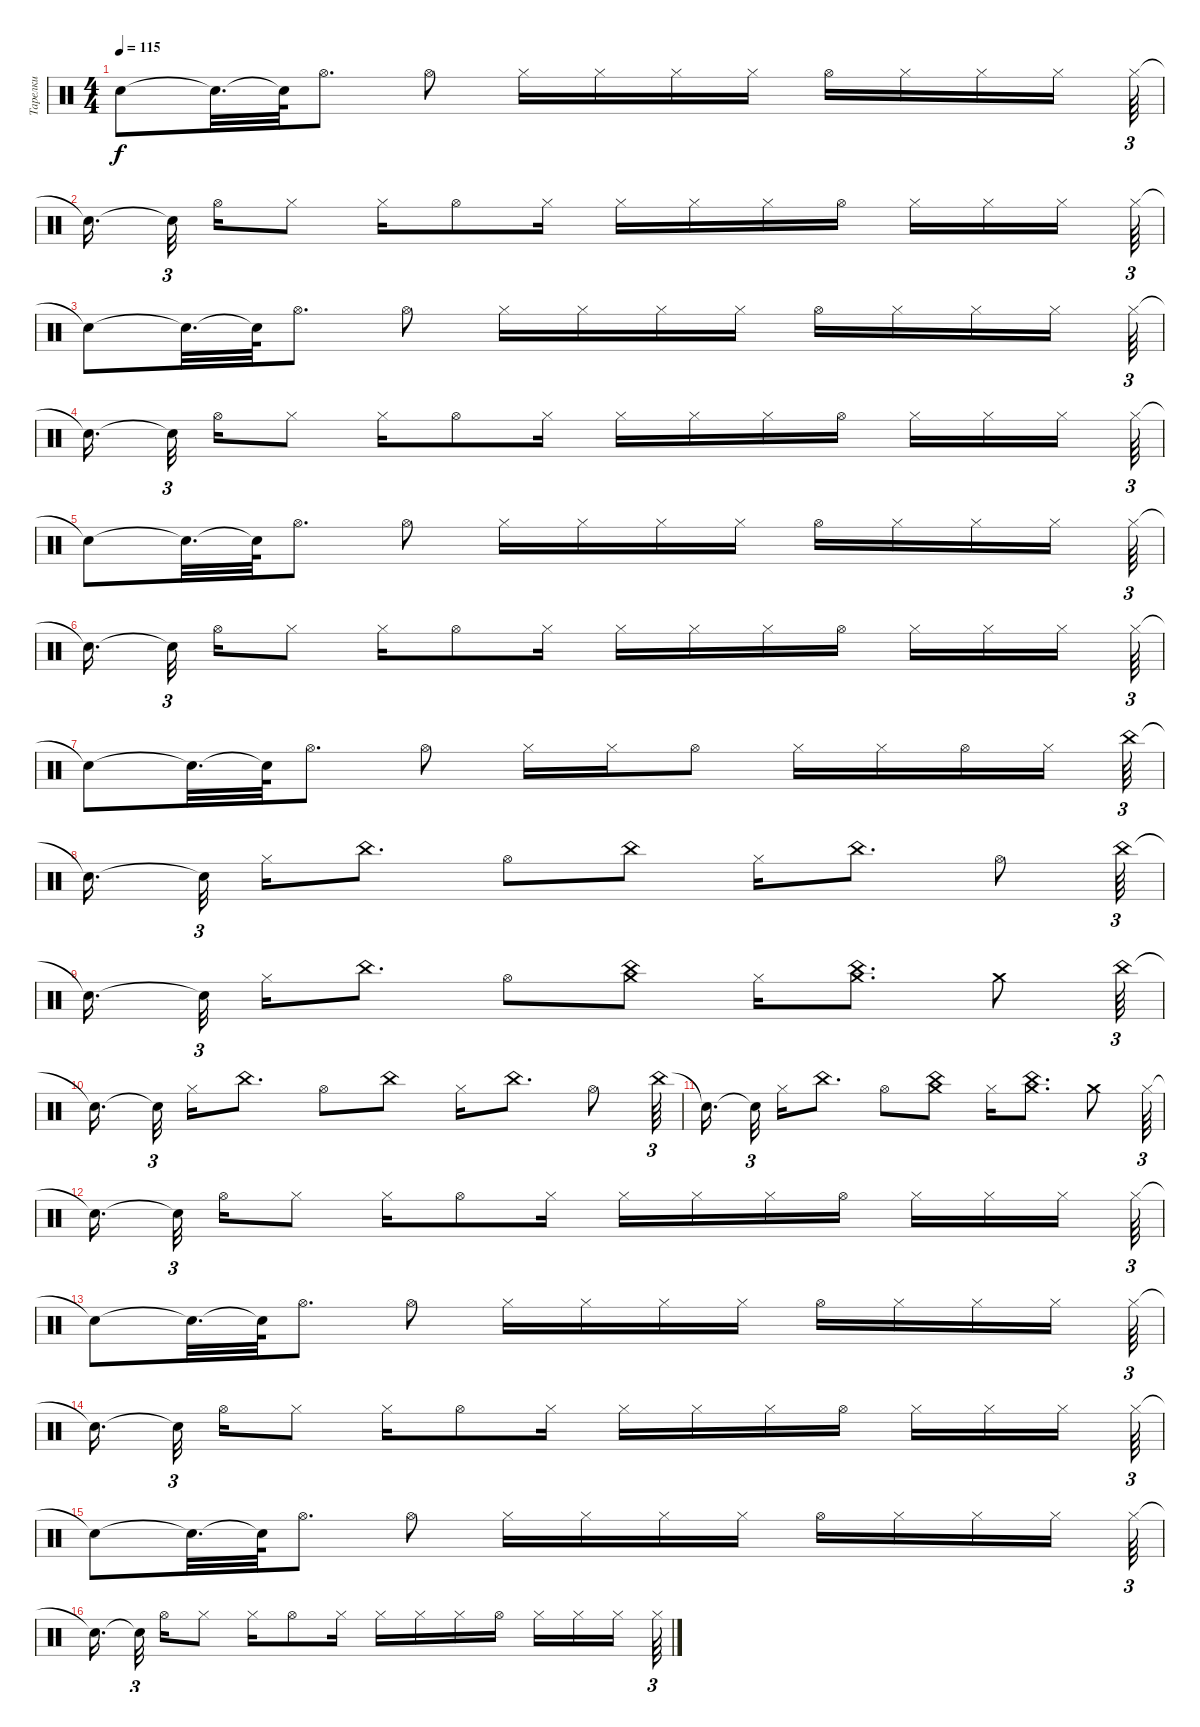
\track ("Тарелки" "Тарелки") {instrument percussion}
\staff {score}
\articulation defaults
\ts (4 4)
\tempo 115
\clef neutral
\ks c "Snare (hit)"{t}.8{dy f} "Snare (hit)"{t}.32{d} "Snare (hit)"{t}.64 "Hi-Hat (open)".8{d} "Hi-Hat (open)".8 "Hi-Hat (closed)".16 "Hi-Hat (closed)".16 "Hi-Hat (closed)".16 "Hi-Hat (closed)".16 "Hi-Hat (open)".16 "Hi-Hat (closed)".16 "Hi-Hat (closed)".16 "Hi-Hat (closed)".16 "Hi-Hat (closed)".64{tu (3 2)}
|
"Snare (hit)"{t}.16{d beam splitsecondary} "Snare (hit)"{t}.32{tu (3 2) beam splitsecondary} "Hi-Hat (open)".16 "Hi-Hat (closed)".8 "Hi-Hat (closed)".16 "Hi-Hat (open)".8 "Hi-Hat (closed)".16 "Hi-Hat (closed)".16 "Hi-Hat (closed)".16 "Hi-Hat (closed)".16 "Hi-Hat (open)".16 "Hi-Hat (closed)".16 "Hi-Hat (closed)".16 "Hi-Hat (closed)".16{beam splitsecondary} "Hi-Hat (closed)".64{tu (3 2)} |
"Snare (hit)"{t}.8 "Snare (hit)"{t}.32{d} "Snare (hit)"{t}.64 "Hi-Hat (open)".8{d} "Hi-Hat (open)".8 "Hi-Hat (closed)".16 "Hi-Hat (closed)".16 "Hi-Hat (closed)".16 "Hi-Hat (closed)".16 "Hi-Hat (open)".16 "Hi-Hat (closed)".16 "Hi-Hat (closed)".16 "Hi-Hat (closed)".16 "Hi-Hat (closed)".64{tu (3 2)} |
"Snare (hit)"{t}.16{d beam splitsecondary} "Snare (hit)"{t}.32{tu (3 2) beam splitsecondary} "Hi-Hat (open)".16 "Hi-Hat (closed)".8 "Hi-Hat (closed)".16 "Hi-Hat (open)".8 "Hi-Hat (closed)".16 "Hi-Hat (closed)".16 "Hi-Hat (closed)".16 "Hi-Hat (closed)".16 "Hi-Hat (open)".16 "Hi-Hat (closed)".16 "Hi-Hat (closed)".16 "Hi-Hat (closed)".16{beam splitsecondary} "Hi-Hat (closed)".64{tu (3 2)} |
"Snare (hit)"{t}.8 "Snare (hit)"{t}.32{d} "Snare (hit)"{t}.64 "Hi-Hat (open)".8{d} "Hi-Hat (open)".8 "Hi-Hat (closed)".16 "Hi-Hat (closed)".16 "Hi-Hat (closed)".16 "Hi-Hat (closed)".16 "Hi-Hat (open)".16 "Hi-Hat (closed)".16 "Hi-Hat (closed)".16 "Hi-Hat (closed)".16 "Hi-Hat (closed)".64{tu (3 2)} |
"Snare (hit)"{t}.16{d beam splitsecondary} "Snare (hit)"{t}.32{tu (3 2) beam splitsecondary} "Hi-Hat (open)".16 "Hi-Hat (closed)".8 "Hi-Hat (closed)".16 "Hi-Hat (open)".8 "Hi-Hat (closed)".16 "Hi-Hat (closed)".16 "Hi-Hat (closed)".16 "Hi-Hat (closed)".16 "Hi-Hat (open)".16 "Hi-Hat (closed)".16 "Hi-Hat (closed)".16 "Hi-Hat (closed)".16{beam splitsecondary} "Hi-Hat (closed)".64{tu (3 2)} |
"Snare (hit)"{t}.8 "Snare (hit)"{t}.32{d} "Snare (hit)"{t}.64 "Hi-Hat (open)".8{d} "Hi-Hat (open)".8 "Hi-Hat (closed)".16 "Hi-Hat (closed)".16 "Hi-Hat (open)".8 "Hi-Hat (closed)".16 "Hi-Hat (closed)".16 "Hi-Hat (open)".16 "Hi-Hat (closed)".16 "China (hit)".64{tu (3 2)} |
"Snare (hit)"{t}.16{d beam splitsecondary} "Snare (hit)"{t}.32{tu (3 2) beam splitsecondary} "Hi-Hat (closed)".16 "China (hit)".8{d} "Hi-Hat (open)".8 "China (hit)".8 "Hi-Hat (closed)".16 "China (hit)".8{d} "Hi-Hat (open)".8 "China (hit)".64{tu (3 2)} |
"Snare (hit)"{t}.16{d beam splitsecondary} "Snare (hit)"{t}.32{tu (3 2) beam splitsecondary} "Hi-Hat (closed)".16 "China (hit)".8{d} "Hi-Hat (open)".8 ("China (hit)" "Crash medium (hit)").8 "Hi-Hat (closed)".16 ("China (hit)" "Crash medium (hit)").8{d} "Crash medium (hit)".8 "China (hit)".64{tu (3 2)} |
"Snare (hit)"{t}.16{d beam splitsecondary} "Snare (hit)"{t}.32{tu (3 2) beam splitsecondary} "Hi-Hat (closed)".16 "China (hit)".8{d} "Hi-Hat (open)".8 "China (hit)".8 "Hi-Hat (closed)".16 "China (hit)".8{d} "Hi-Hat (open)".8 "China (hit)".64{tu (3 2)} |
"Snare (hit)"{t}.16{d beam splitsecondary} "Snare (hit)"{t}.32{tu (3 2) beam splitsecondary} "Hi-Hat (closed)".16 "China (hit)".8{d} "Hi-Hat (open)".8 ("China (hit)" "Crash medium (hit)").8 "Hi-Hat (closed)".16 ("China (hit)" "Crash medium (hit)").8{d} "Crash medium (hit)".8 "Hi-Hat (closed)".64{tu (3 2)} |
"Snare (hit)"{t}.16{d beam splitsecondary} "Snare (hit)"{t}.32{tu (3 2) beam splitsecondary} "Hi-Hat (open)".16 "Hi-Hat (closed)".8 "Hi-Hat (closed)".16 "Hi-Hat (open)".8 "Hi-Hat (closed)".16 "Hi-Hat (closed)".16 "Hi-Hat (closed)".16 "Hi-Hat (closed)".16 "Hi-Hat (open)".16 "Hi-Hat (closed)".16 "Hi-Hat (closed)".16 "Hi-Hat (closed)".16{beam splitsecondary} "Hi-Hat (closed)".64{tu (3 2)} |
"Snare (hit)"{t}.8 "Snare (hit)"{t}.32{d} "Snare (hit)"{t}.64 "Hi-Hat (open)".8{d} "Hi-Hat (open)".8 "Hi-Hat (closed)".16 "Hi-Hat (closed)".16 "Hi-Hat (closed)".16 "Hi-Hat (closed)".16 "Hi-Hat (open)".16 "Hi-Hat (closed)".16 "Hi-Hat (closed)".16 "Hi-Hat (closed)".16 "Hi-Hat (closed)".64{tu (3 2)} |
"Snare (hit)"{t}.16{d beam splitsecondary} "Snare (hit)"{t}.32{tu (3 2) beam splitsecondary} "Hi-Hat (open)".16 "Hi-Hat (closed)".8 "Hi-Hat (closed)".16 "Hi-Hat (open)".8 "Hi-Hat (closed)".16 "Hi-Hat (closed)".16 "Hi-Hat (closed)".16 "Hi-Hat (closed)".16 "Hi-Hat (open)".16 "Hi-Hat (closed)".16 "Hi-Hat (closed)".16 "Hi-Hat (closed)".16{beam splitsecondary} "Hi-Hat (closed)".64{tu (3 2)} |
"Snare (hit)"{t}.8 "Snare (hit)"{t}.32{d} "Snare (hit)"{t}.64 "Hi-Hat (open)".8{d} "Hi-Hat (open)".8 "Hi-Hat (closed)".16 "Hi-Hat (closed)".16 "Hi-Hat (closed)".16 "Hi-Hat (closed)".16 "Hi-Hat (open)".16 "Hi-Hat (closed)".16 "Hi-Hat (closed)".16 "Hi-Hat (closed)".16 "Hi-Hat (closed)".64{tu (3 2)} |
"Snare (hit)"{t}.16{d beam splitsecondary} "Snare (hit)"{t}.32{tu (3 2) beam splitsecondary} "Hi-Hat (open)".16 "Hi-Hat (closed)".8 "Hi-Hat (closed)".16 "Hi-Hat (open)".8 "Hi-Hat (closed)".16 "Hi-Hat (closed)".16 "Hi-Hat (closed)".16 "Hi-Hat (closed)".16 "Hi-Hat (open)".16 "Hi-Hat (closed)".16 "Hi-Hat (closed)".16 "Hi-Hat (closed)".16{beam splitsecondary} "Hi-Hat (closed)".64{tu (3 2)}
